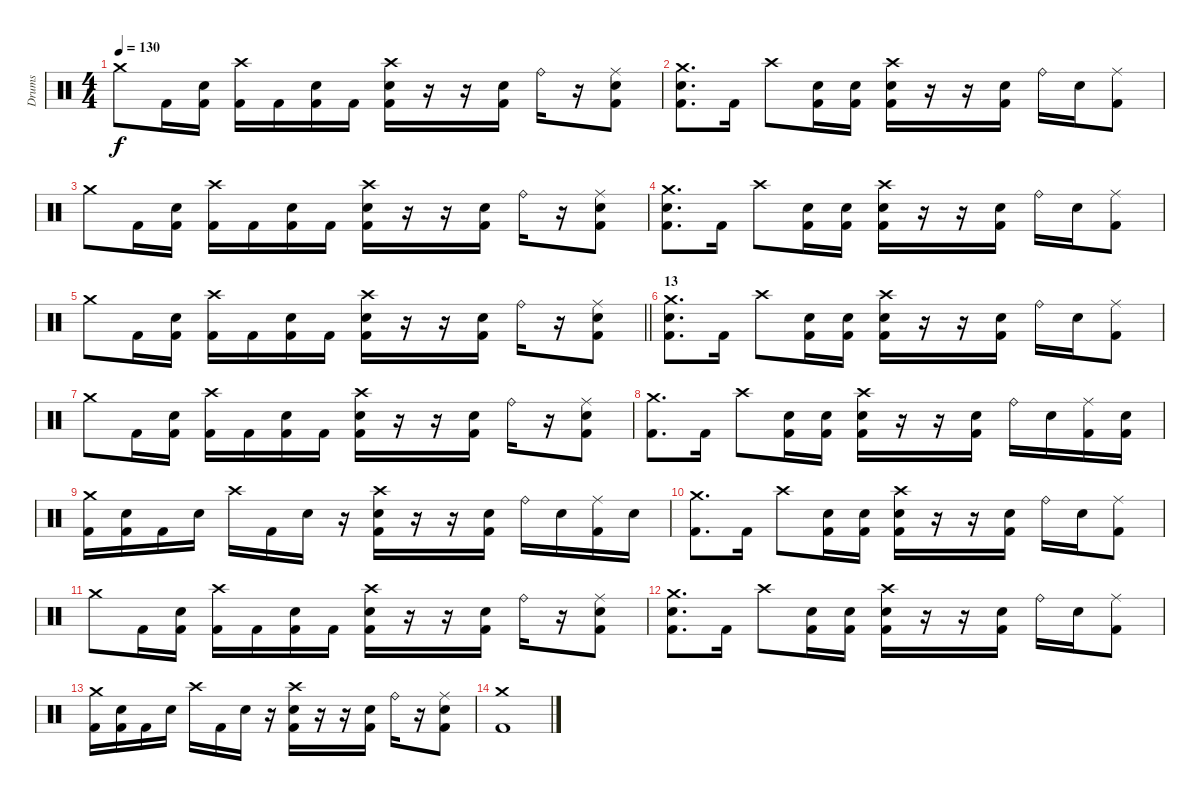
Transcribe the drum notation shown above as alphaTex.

\track ("Drums" "Drums") {instrument percussion}
\staff {score}
\articulation defaults
\ts (4 4)
\tempo 130
\clef neutral
\ks c "Crash medium (hit)".8{dy f} "Kick (hit) 2".16
("Electric Snare (hit)" "Kick (hit) 2").16 ("Crash high (hit)" "Kick (hit) 2").16 "Kick (hit) 2".16 ("Electric Snare (hit)" "Kick (hit) 2").16 "Kick (hit) 2".16 ("Crash high (hit)" "Electric Snare (hit)" "Kick (hit) 2").16 r.16 r.16 ("Electric Snare (hit)" "Kick (hit) 2").16 "Ride (bell)".16 r.16 ("Ride (middle)" "Electric Snare (hit)" "Kick (hit) 2").8 |
("Crash medium (hit)" "Electric Snare (hit)" "Kick (hit) 2").8{d} "Kick (hit) 2".16 "Crash high (hit)".8 ("Electric Snare (hit)" "Kick (hit) 2").16 ("Electric Snare (hit)" "Kick (hit) 2").16 ("Crash high (hit)" "Electric Snare (hit)" "Kick (hit) 2").16 r.16 r.16 ("Electric Snare (hit)" "Kick (hit) 2").16 "Ride (bell)".16 "Electric Snare (hit)".16 ("Ride (middle)" "Kick (hit) 2").8 |
"Crash medium (hit)".8 "Kick (hit) 2".16 ("Electric Snare (hit)" "Kick (hit) 2").16 ("Crash high (hit)" "Kick (hit) 2").16 "Kick (hit) 2".16 ("Electric Snare (hit)" "Kick (hit) 2").16 "Kick (hit) 2".16 ("Crash high (hit)" "Electric Snare (hit)" "Kick (hit) 2").16 r.16 r.16 ("Electric Snare (hit)" "Kick (hit) 2").16 "Ride (bell)".16 r.16 ("Ride (middle)" "Electric Snare (hit)" "Kick (hit) 2").8 |
("Crash medium (hit)" "Electric Snare (hit)" "Kick (hit) 2").8{d} "Kick (hit) 2".16 "Crash high (hit)".8 ("Electric Snare (hit)" "Kick (hit) 2").16 ("Electric Snare (hit)" "Kick (hit) 2").16 ("Crash high (hit)" "Electric Snare (hit)" "Kick (hit) 2").16 r.16 r.16 ("Electric Snare (hit)" "Kick (hit) 2").16 "Ride (bell)".16 "Electric Snare (hit)".16 ("Ride (middle)" "Kick (hit) 2").8 |
\barLineRight lightlight "Crash medium (hit)".8 "Kick (hit) 2".16
("Electric Snare (hit)" "Kick (hit) 2").16 ("Crash high (hit)" "Kick (hit) 2").16 "Kick (hit) 2".16 ("Electric Snare (hit)" "Kick (hit) 2").16 "Kick (hit) 2".16 ("Crash high (hit)" "Electric Snare (hit)" "Kick (hit) 2").16 r.16 r.16 ("Electric Snare (hit)" "Kick (hit) 2").16 "Ride (bell)".16 r.16 ("Ride (middle)" "Electric Snare (hit)" "Kick (hit) 2").8 |
\section ("" "13")
("Crash medium (hit)" "Electric Snare (hit)" "Kick (hit) 2").8{d} "Kick (hit) 2".16 "Crash high (hit)".8 ("Electric Snare (hit)" "Kick (hit) 2").16 ("Electric Snare (hit)" "Kick (hit) 2").16 ("Crash high (hit)" "Electric Snare (hit)" "Kick (hit) 2").16 r.16 r.16 ("Electric Snare (hit)" "Kick (hit) 2").16 "Ride (bell)".16 "Electric Snare (hit)".16 ("Ride (middle)" "Kick (hit) 2").8 |
"Crash medium (hit)".8 "Kick (hit) 2".16 ("Electric Snare (hit)" "Kick (hit) 2").16 ("Crash high (hit)" "Kick (hit) 2").16 "Kick (hit) 2".16 ("Electric Snare (hit)" "Kick (hit) 2").16 "Kick (hit) 2".16 ("Crash high (hit)" "Electric Snare (hit)" "Kick (hit) 2").16 r.16 r.16 ("Electric Snare (hit)" "Kick (hit) 2").16 "Ride (bell)".16 r.16 ("Ride (middle)" "Electric Snare (hit)" "Kick (hit) 2").8 |
("Crash medium (hit)" "Kick (hit) 2").8{d} "Kick (hit) 2".16 "Crash high (hit)".8 ("Electric Snare (hit)" "Kick (hit) 2").16 ("Electric Snare (hit)" "Kick (hit) 2").16 ("Crash high (hit)" "Electric Snare (hit)" "Kick (hit) 2").16 r.16 r.16 ("Electric Snare (hit)" "Kick (hit) 2").16 "Ride (bell)".16 "Electric Snare (hit)".16 ("Ride (middle)" "Kick (hit) 2").16 ("Electric Snare (hit)" "Kick (hit) 2").16 |
("Crash medium (hit)" "Kick (hit) 2").16 ("Electric Snare (hit)" "Kick (hit) 2").16 "Kick (hit) 2".16 "Electric Snare (hit)".16 "Crash high (hit)".16 "Kick (hit) 2".16 "Electric Snare (hit)".16 r.16 ("Crash high (hit)" "Electric Snare (hit)" "Kick (hit) 2").16 r.16 r.16 ("Electric Snare (hit)" "Kick (hit) 2").16 "Ride (bell)".16 "Electric Snare (hit)".16 ("Ride (middle)" "Kick (hit) 2").16 "Electric Snare (hit)".16 |
("Crash medium (hit)" "Kick (hit) 2").8{d} "Kick (hit) 2".16 "Crash high (hit)".8 ("Electric Snare (hit)" "Kick (hit) 2").16 ("Electric Snare (hit)" "Kick (hit) 2").16 ("Crash high (hit)" "Electric Snare (hit)" "Kick (hit) 2").16 r.16 r.16 ("Electric Snare (hit)" "Kick (hit) 2").16 "Ride (bell)".16 "Electric Snare (hit)".16 ("Ride (middle)" "Kick (hit) 2").8 |
"Crash medium (hit)".8 "Kick (hit) 2".16 ("Electric Snare (hit)" "Kick (hit) 2").16 ("Crash high (hit)" "Kick (hit) 2").16 "Kick (hit) 2".16 ("Electric Snare (hit)" "Kick (hit) 2").16 "Kick (hit) 2".16 ("Crash high (hit)" "Electric Snare (hit)" "Kick (hit) 2").16 r.16 r.16 ("Electric Snare (hit)" "Kick (hit) 2").16 "Ride (bell)".16 r.16 ("Ride (middle)" "Electric Snare (hit)" "Kick (hit) 2").8 |
("Crash medium (hit)" "Electric Snare (hit)" "Kick (hit) 2").8{d} "Kick (hit) 2".16 "Crash high (hit)".8 ("Electric Snare (hit)" "Kick (hit) 2").16 ("Electric Snare (hit)" "Kick (hit) 2").16 ("Crash high (hit)" "Electric Snare (hit)" "Kick (hit) 2").16 r.16 r.16 ("Electric Snare (hit)" "Kick (hit) 2").16 "Ride (bell)".16 "Electric Snare (hit)".16 ("Ride (middle)" "Kick (hit) 2").8 |
("Crash medium (hit)" "Kick (hit) 2").16 ("Electric Snare (hit)" "Kick (hit) 2").16 "Kick (hit) 2".16 "Electric Snare (hit)".16 "Crash high (hit)".16 "Kick (hit) 2".16 "Electric Snare (hit)".16 r.16 ("Crash high (hit)" "Electric Snare (hit)" "Kick (hit) 2").16 r.16 r.16 ("Electric Snare (hit)" "Kick (hit) 2").16 "Ride (bell)".16 r.16 ("Ride (middle)" "Electric Snare (hit)" "Kick (hit) 2").8 |
("Crash medium (hit)" "Kick (hit) 2").1
